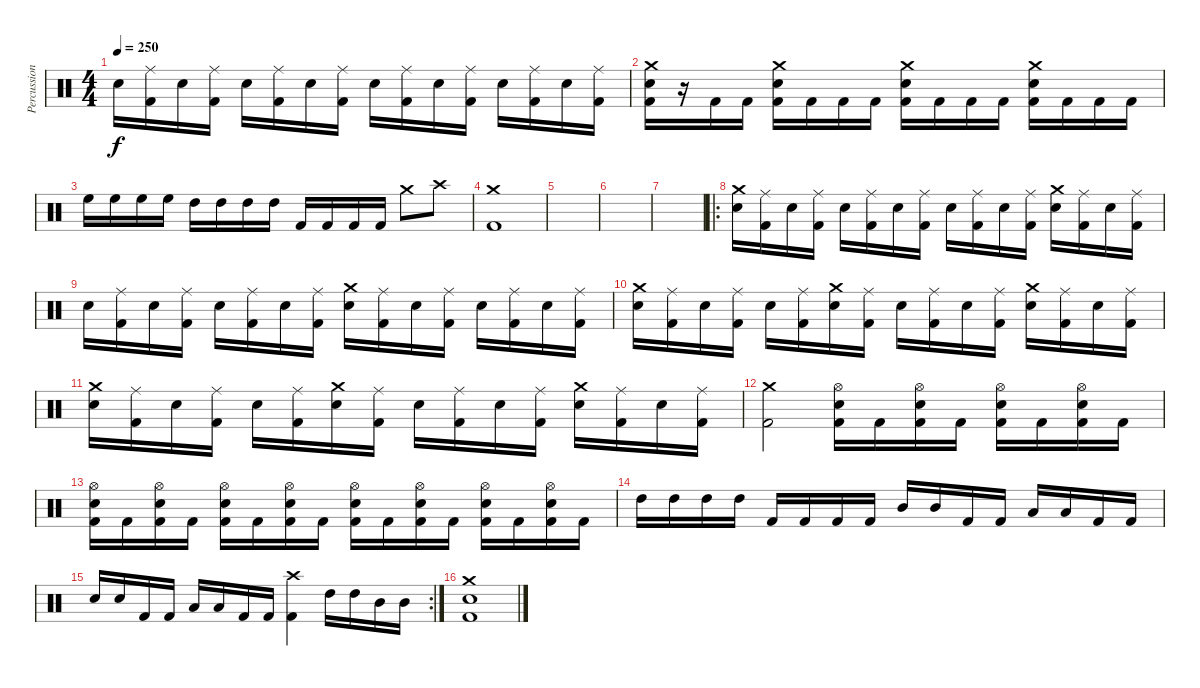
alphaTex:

\track ("Percussion" "Percussion") {instrument percussion}
\staff {score}
\articulation defaults
\ts (4 4)
\tempo 250
\clef neutral
\ks c "Electric Snare (hit)".16{dy f}
("Ride (middle)" "Kick (hit) 2").16 "Electric Snare (hit)".16 ("Ride (middle)" "Kick (hit) 2").16 "Electric Snare (hit)".16 ("Ride (middle)" "Kick (hit) 2").16 "Electric Snare (hit)".16 ("Ride (middle)" "Kick (hit) 2").16 "Electric Snare (hit)".16 ("Ride (middle)" "Kick (hit) 2").16 "Electric Snare (hit)".16 ("Ride (middle)" "Kick (hit) 2").16 "Electric Snare (hit)".16 ("Ride (middle)" "Kick (hit) 2").16 "Electric Snare (hit)".16 ("Ride (middle)" "Kick (hit) 2").16 |
("Crash medium (hit)" "Electric Snare (hit)" "Kick (hit) 2").16 r.16 "Kick (hit) 2".16 "Kick (hit) 2".16 ("Crash medium (hit)" "Electric Snare (hit)" "Kick (hit) 2").16 "Kick (hit) 2".16 "Kick (hit) 2".16 "Kick (hit) 2".16 ("Crash medium (hit)" "Electric Snare (hit)" "Kick (hit) 2").16 "Kick (hit) 2".16 "Kick (hit) 2".16 "Kick (hit) 2".16 ("Crash medium (hit)" "Electric Snare (hit)" "Kick (hit) 2").16 "Kick (hit) 2".16 "Kick (hit) 2".16 "Kick (hit) 2".16 |
"High Floor Tom (hit)".16 "High Floor Tom (hit)".16 "High Floor Tom (hit)".16 "High Floor Tom (hit)".16 "High Tom (hit)".16 "High Tom (hit)".16 "High Tom (hit)".16 "High Tom (hit)".16 "Kick (hit) 2".16 "Kick (hit) 2".16 "Kick (hit) 2".16 "Kick (hit) 2".16 "Crash medium (hit)".8 "Crash high (hit)".8 |
("Crash medium (hit)" "Kick (hit) 2").1 |
|
|
|
\ro
("Crash medium (hit)" "Electric Snare (hit)").16 ("Ride (middle)" "Kick (hit) 2").16 "Electric Snare (hit)".16 ("Ride (middle)" "Kick (hit) 2").16 "Electric Snare (hit)".16 ("Ride (middle)" "Kick (hit) 2").16 "Electric Snare (hit)".16 ("Ride (middle)" "Kick (hit) 2").16 "Electric Snare (hit)".16 ("Ride (middle)" "Kick (hit) 2").16 "Electric Snare (hit)".16 ("Ride (middle)" "Kick (hit) 2").16 ("Crash medium (hit)" "Electric Snare (hit)").16 ("Ride (middle)" "Kick (hit) 2").16 "Electric Snare (hit)".16 ("Ride (middle)" "Kick (hit) 2").16 |
"Electric Snare (hit)".16 ("Ride (middle)" "Kick (hit) 2").16 "Electric Snare (hit)".16 ("Ride (middle)" "Kick (hit) 2").16 "Electric Snare (hit)".16 ("Ride (middle)" "Kick (hit) 2").16 "Electric Snare (hit)".16 ("Ride (middle)" "Kick (hit) 2").16 ("Crash medium (hit)" "Electric Snare (hit)").16 ("Ride (middle)" "Kick (hit) 2").16 "Electric Snare (hit)".16 ("Ride (middle)" "Kick (hit) 2").16 "Electric Snare (hit)".16 ("Ride (middle)" "Kick (hit) 2").16 "Electric Snare (hit)".16 ("Ride (middle)" "Kick (hit) 2").16 |
("Crash medium (hit)" "Electric Snare (hit)").16 ("Ride (middle)" "Kick (hit) 2").16 "Electric Snare (hit)".16 ("Ride (middle)" "Kick (hit) 2").16 "Electric Snare (hit)".16 ("Ride (middle)" "Kick (hit) 2").16 ("Crash medium (hit)" "Electric Snare (hit)").16 ("Ride (middle)" "Kick (hit) 2").16 "Electric Snare (hit)".16 ("Ride (middle)" "Kick (hit) 2").16 "Electric Snare (hit)".16 ("Ride (middle)" "Kick (hit) 2").16 ("Crash medium (hit)" "Electric Snare (hit)").16 ("Ride (middle)" "Kick (hit) 2").16 "Electric Snare (hit)".16 ("Ride (middle)" "Kick (hit) 2").16 |
("Crash medium (hit)" "Electric Snare (hit)").16 ("Ride (middle)" "Kick (hit) 2").16 "Electric Snare (hit)".16 ("Ride (middle)" "Kick (hit) 2").16 "Electric Snare (hit)".16 ("Ride (middle)" "Kick (hit) 2").16 ("Crash medium (hit)" "Electric Snare (hit)").16 ("Ride (middle)" "Kick (hit) 2").16 "Electric Snare (hit)".16 ("Ride (middle)" "Kick (hit) 2").16 "Electric Snare (hit)".16 ("Ride (middle)" "Kick (hit) 2").16 ("Crash medium (hit)" "Electric Snare (hit)").16 ("Ride (middle)" "Kick (hit) 2").16 "Electric Snare (hit)".16 ("Ride (middle)" "Kick (hit) 2").16 |
("Crash medium (hit)" "Kick (hit) 2").2 ("Hi-Hat (open)" "Electric Snare (hit)" "Kick (hit) 2").16 "Kick (hit) 2".16 ("Hi-Hat (open)" "Electric Snare (hit)" "Kick (hit) 2").16 "Kick (hit) 2".16 ("Hi-Hat (open)" "Electric Snare (hit)" "Kick (hit) 2").16 "Kick (hit) 2".16 ("Hi-Hat (open)" "Electric Snare (hit)" "Kick (hit) 2").16 "Kick (hit) 2".16 |
("Hi-Hat (open)" "Electric Snare (hit)" "Kick (hit) 2").16 "Kick (hit) 2".16 ("Hi-Hat (open)" "Electric Snare (hit)" "Kick (hit) 2").16 "Kick (hit) 2".16 ("Hi-Hat (open)" "Electric Snare (hit)" "Kick (hit) 2").16 "Kick (hit) 2".16 ("Hi-Hat (open)" "Electric Snare (hit)" "Kick (hit) 2").16 "Kick (hit) 2".16 ("Hi-Hat (open)" "Electric Snare (hit)" "Kick (hit) 2").16 "Kick (hit) 2".16 ("Hi-Hat (open)" "Electric Snare (hit)" "Kick (hit) 2").16 "Kick (hit) 2".16 ("Hi-Hat (open)" "Electric Snare (hit)" "Kick (hit) 2").16 "Kick (hit) 2".16 ("Hi-Hat (open)" "Electric Snare (hit)" "Kick (hit) 2").16 "Kick (hit) 2".16 |
"High Tom (hit)".16 "High Tom (hit)".16 "High Tom (hit)".16 "High Tom (hit)".16 "Kick (hit) 2".16 "Kick (hit) 2".16 "Kick (hit) 2".16 "Kick (hit) 2".16 "Mid Tom (hit)".16 "Mid Tom (hit)".16 "Kick (hit) 2".16 "Kick (hit) 2".16 "Low Tom (hit)".16 "Low Tom (hit)".16 "Kick (hit) 2".16 "Kick (hit) 2".16 |
\rc 2 "Electric Snare (hit)".16 "Electric Snare (hit)".16 "Kick (hit) 2".16 "Kick (hit) 2".16 "Low Tom (hit)".16 "Low Tom (hit)".16 "Kick (hit) 2".16 "Kick (hit) 2".16
("Crash high (hit)" "Kick (hit) 2").4 "High Tom (hit)".16 "High Tom (hit)".16 "Mid Tom (hit)".16 "Mid Tom (hit)".16 |
("Crash medium (hit)" "Electric Snare (hit)" "Kick (hit) 2").1
